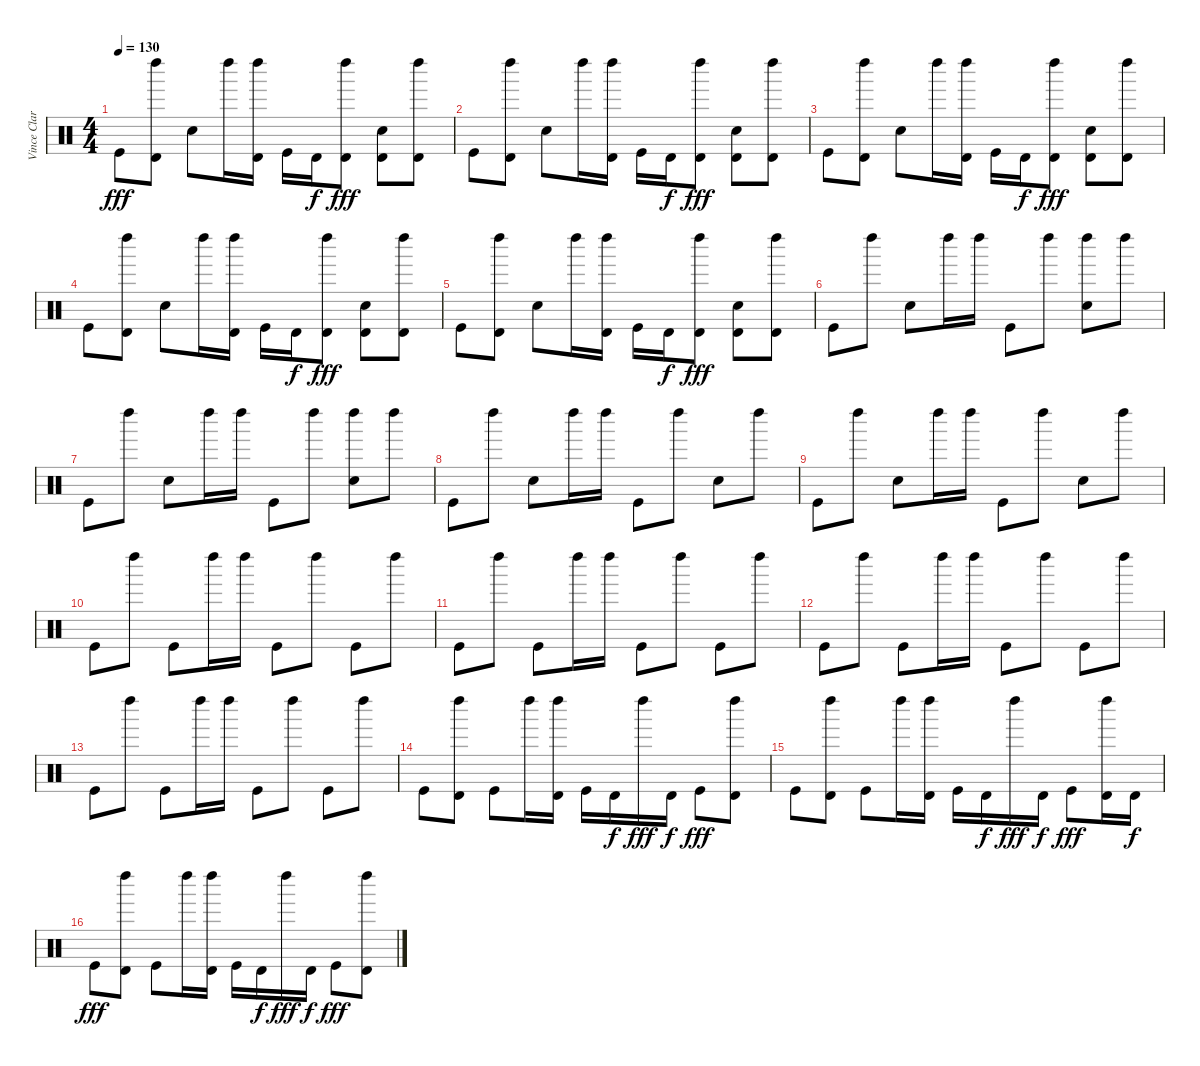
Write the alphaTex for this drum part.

\track ("Vince Clarke" "Vince Clar") {instrument percussion}
\staff {score}
\articulation defaults
\ts (4 4)
\tempo 130
\clef neutral
\ks c "Kick (hit)".8{dy fff}
("Left Maraca (hit)" "Timbale high (hit)").8 "Snare (hit) 2".8 "Left Maraca (hit)".16 ("Left Maraca (hit)" "Timbale high (hit)").16 "Kick (hit)".16 "Timbale high (hit)".16{dy f} ("Left Maraca (hit)" "Timbale high (hit)").8{dy fff} ("Snare (hit) 2" "Timbale high (hit)").8 ("Left Maraca (hit)" "Timbale high (hit)").8 |
"Kick (hit)".8 ("Left Maraca (hit)" "Timbale high (hit)").8 "Snare (hit) 2".8 "Left Maraca (hit)".16 ("Left Maraca (hit)" "Timbale high (hit)").16 "Kick (hit)".16 "Timbale high (hit)".16{dy f} ("Left Maraca (hit)" "Timbale high (hit)").8{dy fff} ("Snare (hit) 2" "Timbale high (hit)").8 ("Left Maraca (hit)" "Timbale high (hit)").8 |
"Kick (hit)".8 ("Left Maraca (hit)" "Timbale high (hit)").8 "Snare (hit) 2".8 "Left Maraca (hit)".16 ("Left Maraca (hit)" "Timbale high (hit)").16 "Kick (hit)".16 "Timbale high (hit)".16{dy f} ("Left Maraca (hit)" "Timbale high (hit)").8{dy fff} ("Snare (hit) 2" "Timbale high (hit)").8 ("Left Maraca (hit)" "Timbale high (hit)").8 |
"Kick (hit)".8 ("Left Maraca (hit)" "Timbale high (hit)").8 "Snare (hit) 2".8 "Left Maraca (hit)".16 ("Left Maraca (hit)" "Timbale high (hit)").16 "Kick (hit)".16 "Timbale high (hit)".16{dy f} ("Left Maraca (hit)" "Timbale high (hit)").8{dy fff} ("Snare (hit) 2" "Timbale high (hit)").8 ("Left Maraca (hit)" "Timbale high (hit)").8 |
"Kick (hit)".8 ("Left Maraca (hit)" "Timbale high (hit)").8 "Snare (hit) 2".8 "Left Maraca (hit)".16 ("Left Maraca (hit)" "Timbale high (hit)").16 "Kick (hit)".16 "Timbale high (hit)".16{dy f} ("Left Maraca (hit)" "Timbale high (hit)").8{dy fff} ("Snare (hit) 2" "Timbale high (hit)").8 ("Left Maraca (hit)" "Timbale high (hit)").8 |
"Kick (hit)".8 "Left Maraca (hit)".8 "Snare (hit) 2".8 "Left Maraca (hit)".16 "Left Maraca (hit)".16 "Kick (hit)".8 "Left Maraca (hit)".8 ("Snare (hit) 2" "Left Maraca (hit)").8 "Left Maraca (hit)".8 |
"Kick (hit)".8 "Left Maraca (hit)".8 "Snare (hit) 2".8 "Left Maraca (hit)".16 "Left Maraca (hit)".16 "Kick (hit)".8 "Left Maraca (hit)".8 ("Snare (hit) 2" "Left Maraca (hit)").8 "Left Maraca (hit)".8 |
"Kick (hit)".8 "Left Maraca (hit)".8 "Snare (hit) 2".8 "Left Maraca (hit)".16 "Left Maraca (hit)".16 "Kick (hit)".8 "Left Maraca (hit)".8 "Snare (hit) 2".8 "Left Maraca (hit)".8 |
"Kick (hit)".8 "Left Maraca (hit)".8 "Snare (hit) 2".8 "Left Maraca (hit)".16 "Left Maraca (hit)".16 "Kick (hit)".8 "Left Maraca (hit)".8 "Snare (hit) 2".8 "Left Maraca (hit)".8 |
"Kick (hit)".8 "Left Maraca (hit)".8 "Kick (hit)".8 "Left Maraca (hit)".16 "Left Maraca (hit)".16 "Kick (hit)".8 "Left Maraca (hit)".8 "Kick (hit)".8 "Left Maraca (hit)".8 |
"Kick (hit)".8 "Left Maraca (hit)".8 "Kick (hit)".8 "Left Maraca (hit)".16 "Left Maraca (hit)".16 "Kick (hit)".8 "Left Maraca (hit)".8 "Kick (hit)".8 "Left Maraca (hit)".8 |
"Kick (hit)".8 "Left Maraca (hit)".8 "Kick (hit)".8 "Left Maraca (hit)".16 "Left Maraca (hit)".16 "Kick (hit)".8 "Left Maraca (hit)".8 "Kick (hit)".8 "Left Maraca (hit)".8 |
"Kick (hit)".8 "Left Maraca (hit)".8 "Kick (hit)".8 "Left Maraca (hit)".16 "Left Maraca (hit)".16 "Kick (hit)".8 "Left Maraca (hit)".8 "Kick (hit)".8 "Left Maraca (hit)".8 |
"Kick (hit)".8 ("Left Maraca (hit)" "Timbale high (hit)").8 "Kick (hit)".8 "Left Maraca (hit)".16 ("Left Maraca (hit)" "Timbale high (hit)").16 "Kick (hit)".16 "Timbale high (hit)".16{dy f} "Left Maraca (hit)".16{dy fff} "Timbale high (hit)".16{dy f} "Kick (hit)".8{dy fff} ("Left Maraca (hit)" "Timbale high (hit)").8 |
"Kick (hit)".8 ("Left Maraca (hit)" "Timbale high (hit)").8 "Kick (hit)".8 "Left Maraca (hit)".16 ("Left Maraca (hit)" "Timbale high (hit)").16 "Kick (hit)".16 "Timbale high (hit)".16{dy f} "Left Maraca (hit)".16{dy fff} "Timbale high (hit)".16{dy f} "Kick (hit)".8{dy fff} ("Left Maraca (hit)" "Timbale high (hit)").16 "Timbale high (hit)".16{dy f} |
"Kick (hit)".8{dy fff} ("Left Maraca (hit)" "Timbale high (hit)").8 "Kick (hit)".8 "Left Maraca (hit)".16 ("Left Maraca (hit)" "Timbale high (hit)").16 "Kick (hit)".16 "Timbale high (hit)".16{dy f} "Left Maraca (hit)".16{dy fff} "Timbale high (hit)".16{dy f} "Kick (hit)".8{dy fff} ("Left Maraca (hit)" "Timbale high (hit)").8
